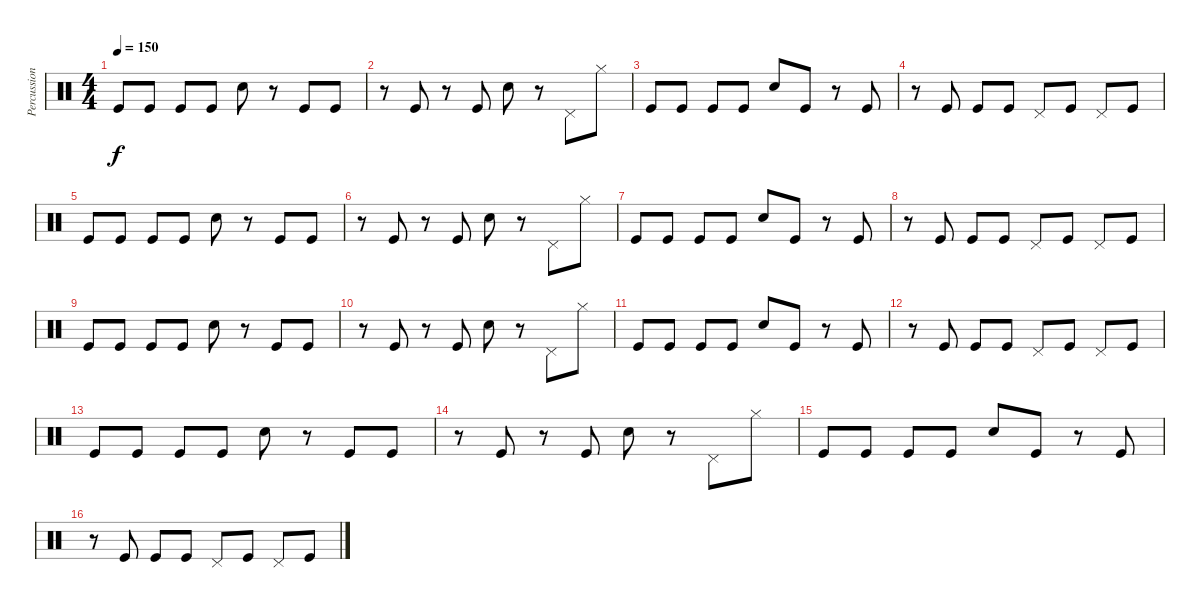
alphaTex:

\track ("Percussions" "Percussion") {instrument percussion}
\staff {score}
\articulation defaults
\ts (4 4)
\tempo 150
\clef neutral
\ks c "Kick (hit)".8{dy f} "Kick (hit)".8 "Kick (hit)".8 "Kick (hit)".8 "Snare (hit) 2".8
r.8 "Kick (hit)".8 "Kick (hit)".8 |
r.8 "Kick (hit)".8 r.8 "Kick (hit)".8 "Snare (hit) 2".8 r.8 "Pedal Hi-Hat (hit)".8 "Hi-Hat (closed)".8 |
"Kick (hit)".8 "Kick (hit)".8 "Kick (hit)".8 "Kick (hit)".8 "Snare (hit) 2".8 "Kick (hit)".8 r.8 "Kick (hit)".8 |
r.8 "Kick (hit)".8 "Kick (hit)".8 "Kick (hit)".8 "Pedal Hi-Hat (hit)".8 "Kick (hit)".8 "Pedal Hi-Hat (hit)".8 "Kick (hit)".8 |
"Kick (hit)".8 "Kick (hit)".8 "Kick (hit)".8 "Kick (hit)".8 "Snare (hit) 2".8 r.8 "Kick (hit)".8 "Kick (hit)".8 |
r.8 "Kick (hit)".8 r.8 "Kick (hit)".8 "Snare (hit) 2".8 r.8 "Pedal Hi-Hat (hit)".8 "Hi-Hat (closed)".8 |
"Kick (hit)".8 "Kick (hit)".8 "Kick (hit)".8 "Kick (hit)".8 "Snare (hit) 2".8 "Kick (hit)".8 r.8 "Kick (hit)".8 |
r.8 "Kick (hit)".8 "Kick (hit)".8 "Kick (hit)".8 "Pedal Hi-Hat (hit)".8 "Kick (hit)".8 "Pedal Hi-Hat (hit)".8 "Kick (hit)".8 |
"Kick (hit)".8 "Kick (hit)".8 "Kick (hit)".8 "Kick (hit)".8 "Snare (hit) 2".8 r.8 "Kick (hit)".8 "Kick (hit)".8 |
r.8 "Kick (hit)".8 r.8 "Kick (hit)".8 "Snare (hit) 2".8 r.8 "Pedal Hi-Hat (hit)".8 "Hi-Hat (closed)".8 |
"Kick (hit)".8 "Kick (hit)".8 "Kick (hit)".8 "Kick (hit)".8 "Snare (hit) 2".8 "Kick (hit)".8 r.8 "Kick (hit)".8 |
r.8 "Kick (hit)".8 "Kick (hit)".8 "Kick (hit)".8 "Pedal Hi-Hat (hit)".8 "Kick (hit)".8 "Pedal Hi-Hat (hit)".8 "Kick (hit)".8 |
"Kick (hit)".8 "Kick (hit)".8 "Kick (hit)".8 "Kick (hit)".8 "Snare (hit) 2".8 r.8 "Kick (hit)".8 "Kick (hit)".8 |
r.8 "Kick (hit)".8 r.8 "Kick (hit)".8 "Snare (hit) 2".8 r.8 "Pedal Hi-Hat (hit)".8 "Hi-Hat (closed)".8 |
"Kick (hit)".8 "Kick (hit)".8 "Kick (hit)".8 "Kick (hit)".8 "Snare (hit) 2".8 "Kick (hit)".8 r.8 "Kick (hit)".8 |
r.8 "Kick (hit)".8 "Kick (hit)".8 "Kick (hit)".8 "Pedal Hi-Hat (hit)".8 "Kick (hit)".8 "Pedal Hi-Hat (hit)".8 "Kick (hit)".8
